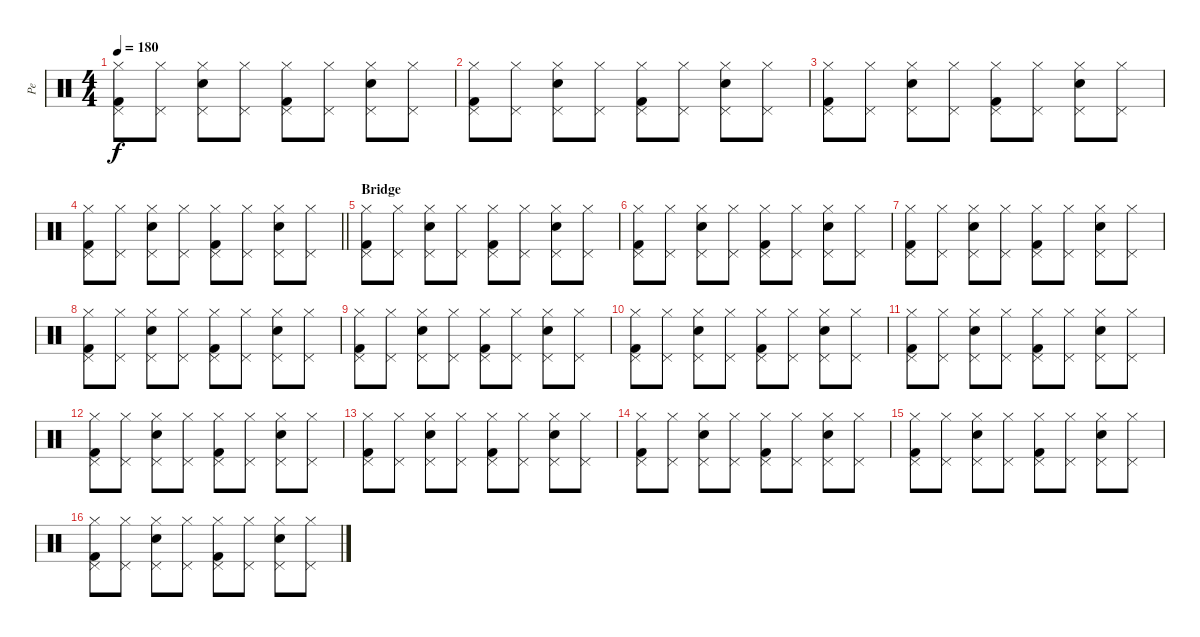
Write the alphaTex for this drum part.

\track ("Pe" "Pe") {instrument percussion}
\staff {score}
\articulation defaults
\ts (4 4)
\tempo 180
\clef neutral
\ks c
("Kick (hit) 2" "Hi-Hat (closed)" "Pedal Hi-Hat (hit)").8{dy f} ("Hi-Hat (closed)" "Pedal Hi-Hat (hit)").8 ("Electric Snare (hit)" "Hi-Hat (closed)" "Pedal Hi-Hat (hit)").8 ("Hi-Hat (closed)" "Pedal Hi-Hat (hit)").8 ("Kick (hit) 2" "Hi-Hat (closed)" "Pedal Hi-Hat (hit)").8 ("Hi-Hat (closed)" "Pedal Hi-Hat (hit)").8 ("Electric Snare (hit)" "Hi-Hat (closed)" "Pedal Hi-Hat (hit)").8 ("Hi-Hat (closed)" "Pedal Hi-Hat (hit)").8 |
("Kick (hit) 2" "Hi-Hat (closed)" "Pedal Hi-Hat (hit)").8 ("Hi-Hat (closed)" "Pedal Hi-Hat (hit)").8 ("Electric Snare (hit)" "Hi-Hat (closed)" "Pedal Hi-Hat (hit)").8 ("Hi-Hat (closed)" "Pedal Hi-Hat (hit)").8 ("Kick (hit) 2" "Hi-Hat (closed)" "Pedal Hi-Hat (hit)").8 ("Hi-Hat (closed)" "Pedal Hi-Hat (hit)").8 ("Electric Snare (hit)" "Hi-Hat (closed)" "Pedal Hi-Hat (hit)").8 ("Hi-Hat (closed)" "Pedal Hi-Hat (hit)").8 |
("Kick (hit) 2" "Hi-Hat (closed)" "Pedal Hi-Hat (hit)").8 ("Hi-Hat (closed)" "Pedal Hi-Hat (hit)").8 ("Electric Snare (hit)" "Hi-Hat (closed)" "Pedal Hi-Hat (hit)").8 ("Hi-Hat (closed)" "Pedal Hi-Hat (hit)").8 ("Kick (hit) 2" "Hi-Hat (closed)" "Pedal Hi-Hat (hit)").8 ("Hi-Hat (closed)" "Pedal Hi-Hat (hit)").8 ("Electric Snare (hit)" "Hi-Hat (closed)" "Pedal Hi-Hat (hit)").8 ("Hi-Hat (closed)" "Pedal Hi-Hat (hit)").8 |
\barLineRight lightlight
("Kick (hit) 2" "Hi-Hat (closed)" "Pedal Hi-Hat (hit)").8 ("Hi-Hat (closed)" "Pedal Hi-Hat (hit)").8 ("Electric Snare (hit)" "Hi-Hat (closed)" "Pedal Hi-Hat (hit)").8 ("Hi-Hat (closed)" "Pedal Hi-Hat (hit)").8 ("Kick (hit) 2" "Hi-Hat (closed)" "Pedal Hi-Hat (hit)").8 ("Hi-Hat (closed)" "Pedal Hi-Hat (hit)").8 ("Electric Snare (hit)" "Hi-Hat (closed)" "Pedal Hi-Hat (hit)").8 ("Hi-Hat (closed)" "Pedal Hi-Hat (hit)").8 |
\section ("" "Bridge")
("Kick (hit) 2" "Hi-Hat (closed)" "Pedal Hi-Hat (hit)").8 ("Hi-Hat (closed)" "Pedal Hi-Hat (hit)").8 ("Electric Snare (hit)" "Hi-Hat (closed)" "Pedal Hi-Hat (hit)").8 ("Hi-Hat (closed)" "Pedal Hi-Hat (hit)").8 ("Kick (hit) 2" "Hi-Hat (closed)" "Pedal Hi-Hat (hit)").8 ("Hi-Hat (closed)" "Pedal Hi-Hat (hit)").8 ("Electric Snare (hit)" "Hi-Hat (closed)" "Pedal Hi-Hat (hit)").8 ("Hi-Hat (closed)" "Pedal Hi-Hat (hit)").8 |
("Kick (hit) 2" "Hi-Hat (closed)" "Pedal Hi-Hat (hit)").8 ("Hi-Hat (closed)" "Pedal Hi-Hat (hit)").8 ("Electric Snare (hit)" "Hi-Hat (closed)" "Pedal Hi-Hat (hit)").8 ("Hi-Hat (closed)" "Pedal Hi-Hat (hit)").8 ("Kick (hit) 2" "Hi-Hat (closed)" "Pedal Hi-Hat (hit)").8 ("Hi-Hat (closed)" "Pedal Hi-Hat (hit)").8 ("Electric Snare (hit)" "Hi-Hat (closed)" "Pedal Hi-Hat (hit)").8 ("Hi-Hat (closed)" "Pedal Hi-Hat (hit)").8 |
("Kick (hit) 2" "Hi-Hat (closed)" "Pedal Hi-Hat (hit)").8 ("Hi-Hat (closed)" "Pedal Hi-Hat (hit)").8 ("Electric Snare (hit)" "Hi-Hat (closed)" "Pedal Hi-Hat (hit)").8 ("Hi-Hat (closed)" "Pedal Hi-Hat (hit)").8 ("Kick (hit) 2" "Hi-Hat (closed)" "Pedal Hi-Hat (hit)").8 ("Hi-Hat (closed)" "Pedal Hi-Hat (hit)").8 ("Electric Snare (hit)" "Hi-Hat (closed)" "Pedal Hi-Hat (hit)").8 ("Hi-Hat (closed)" "Pedal Hi-Hat (hit)").8 |
("Kick (hit) 2" "Hi-Hat (closed)" "Pedal Hi-Hat (hit)").8 ("Hi-Hat (closed)" "Pedal Hi-Hat (hit)").8 ("Electric Snare (hit)" "Hi-Hat (closed)" "Pedal Hi-Hat (hit)").8 ("Hi-Hat (closed)" "Pedal Hi-Hat (hit)").8 ("Kick (hit) 2" "Hi-Hat (closed)" "Pedal Hi-Hat (hit)").8 ("Hi-Hat (closed)" "Pedal Hi-Hat (hit)").8 ("Electric Snare (hit)" "Hi-Hat (closed)" "Pedal Hi-Hat (hit)").8 ("Hi-Hat (closed)" "Pedal Hi-Hat (hit)").8 |
("Kick (hit) 2" "Hi-Hat (closed)" "Pedal Hi-Hat (hit)").8 ("Hi-Hat (closed)" "Pedal Hi-Hat (hit)").8 ("Electric Snare (hit)" "Hi-Hat (closed)" "Pedal Hi-Hat (hit)").8 ("Hi-Hat (closed)" "Pedal Hi-Hat (hit)").8 ("Kick (hit) 2" "Hi-Hat (closed)" "Pedal Hi-Hat (hit)").8 ("Hi-Hat (closed)" "Pedal Hi-Hat (hit)").8 ("Electric Snare (hit)" "Hi-Hat (closed)" "Pedal Hi-Hat (hit)").8 ("Hi-Hat (closed)" "Pedal Hi-Hat (hit)").8 |
("Kick (hit) 2" "Hi-Hat (closed)" "Pedal Hi-Hat (hit)").8 ("Hi-Hat (closed)" "Pedal Hi-Hat (hit)").8 ("Electric Snare (hit)" "Hi-Hat (closed)" "Pedal Hi-Hat (hit)").8 ("Hi-Hat (closed)" "Pedal Hi-Hat (hit)").8 ("Kick (hit) 2" "Hi-Hat (closed)" "Pedal Hi-Hat (hit)").8 ("Hi-Hat (closed)" "Pedal Hi-Hat (hit)").8 ("Electric Snare (hit)" "Hi-Hat (closed)" "Pedal Hi-Hat (hit)").8 ("Hi-Hat (closed)" "Pedal Hi-Hat (hit)").8 |
("Kick (hit) 2" "Hi-Hat (closed)" "Pedal Hi-Hat (hit)").8 ("Hi-Hat (closed)" "Pedal Hi-Hat (hit)").8 ("Electric Snare (hit)" "Hi-Hat (closed)" "Pedal Hi-Hat (hit)").8 ("Hi-Hat (closed)" "Pedal Hi-Hat (hit)").8 ("Kick (hit) 2" "Hi-Hat (closed)" "Pedal Hi-Hat (hit)").8 ("Hi-Hat (closed)" "Pedal Hi-Hat (hit)").8 ("Electric Snare (hit)" "Hi-Hat (closed)" "Pedal Hi-Hat (hit)").8 ("Hi-Hat (closed)" "Pedal Hi-Hat (hit)").8 |
("Kick (hit) 2" "Hi-Hat (closed)" "Pedal Hi-Hat (hit)").8 ("Hi-Hat (closed)" "Pedal Hi-Hat (hit)").8 ("Electric Snare (hit)" "Hi-Hat (closed)" "Pedal Hi-Hat (hit)").8 ("Hi-Hat (closed)" "Pedal Hi-Hat (hit)").8 ("Kick (hit) 2" "Hi-Hat (closed)" "Pedal Hi-Hat (hit)").8 ("Hi-Hat (closed)" "Pedal Hi-Hat (hit)").8 ("Electric Snare (hit)" "Hi-Hat (closed)" "Pedal Hi-Hat (hit)").8 ("Hi-Hat (closed)" "Pedal Hi-Hat (hit)").8 |
("Kick (hit) 2" "Hi-Hat (closed)" "Pedal Hi-Hat (hit)").8 ("Hi-Hat (closed)" "Pedal Hi-Hat (hit)").8 ("Electric Snare (hit)" "Hi-Hat (closed)" "Pedal Hi-Hat (hit)").8 ("Hi-Hat (closed)" "Pedal Hi-Hat (hit)").8 ("Kick (hit) 2" "Hi-Hat (closed)" "Pedal Hi-Hat (hit)").8 ("Hi-Hat (closed)" "Pedal Hi-Hat (hit)").8 ("Electric Snare (hit)" "Hi-Hat (closed)" "Pedal Hi-Hat (hit)").8 ("Hi-Hat (closed)" "Pedal Hi-Hat (hit)").8 |
("Kick (hit) 2" "Hi-Hat (closed)" "Pedal Hi-Hat (hit)").8 ("Hi-Hat (closed)" "Pedal Hi-Hat (hit)").8 ("Electric Snare (hit)" "Hi-Hat (closed)" "Pedal Hi-Hat (hit)").8 ("Hi-Hat (closed)" "Pedal Hi-Hat (hit)").8 ("Kick (hit) 2" "Hi-Hat (closed)" "Pedal Hi-Hat (hit)").8 ("Hi-Hat (closed)" "Pedal Hi-Hat (hit)").8 ("Electric Snare (hit)" "Hi-Hat (closed)" "Pedal Hi-Hat (hit)").8 ("Hi-Hat (closed)" "Pedal Hi-Hat (hit)").8 |
("Kick (hit) 2" "Hi-Hat (closed)" "Pedal Hi-Hat (hit)").8 ("Hi-Hat (closed)" "Pedal Hi-Hat (hit)").8 ("Electric Snare (hit)" "Hi-Hat (closed)" "Pedal Hi-Hat (hit)").8 ("Hi-Hat (closed)" "Pedal Hi-Hat (hit)").8 ("Kick (hit) 2" "Hi-Hat (closed)" "Pedal Hi-Hat (hit)").8 ("Hi-Hat (closed)" "Pedal Hi-Hat (hit)").8 ("Electric Snare (hit)" "Hi-Hat (closed)" "Pedal Hi-Hat (hit)").8 ("Hi-Hat (closed)" "Pedal Hi-Hat (hit)").8 |
("Kick (hit) 2" "Hi-Hat (closed)" "Pedal Hi-Hat (hit)").8 ("Hi-Hat (closed)" "Pedal Hi-Hat (hit)").8 ("Electric Snare (hit)" "Hi-Hat (closed)" "Pedal Hi-Hat (hit)").8 ("Hi-Hat (closed)" "Pedal Hi-Hat (hit)").8 ("Kick (hit) 2" "Hi-Hat (closed)" "Pedal Hi-Hat (hit)").8 ("Hi-Hat (closed)" "Pedal Hi-Hat (hit)").8 ("Electric Snare (hit)" "Hi-Hat (closed)" "Pedal Hi-Hat (hit)").8 ("Hi-Hat (closed)" "Pedal Hi-Hat (hit)").8
